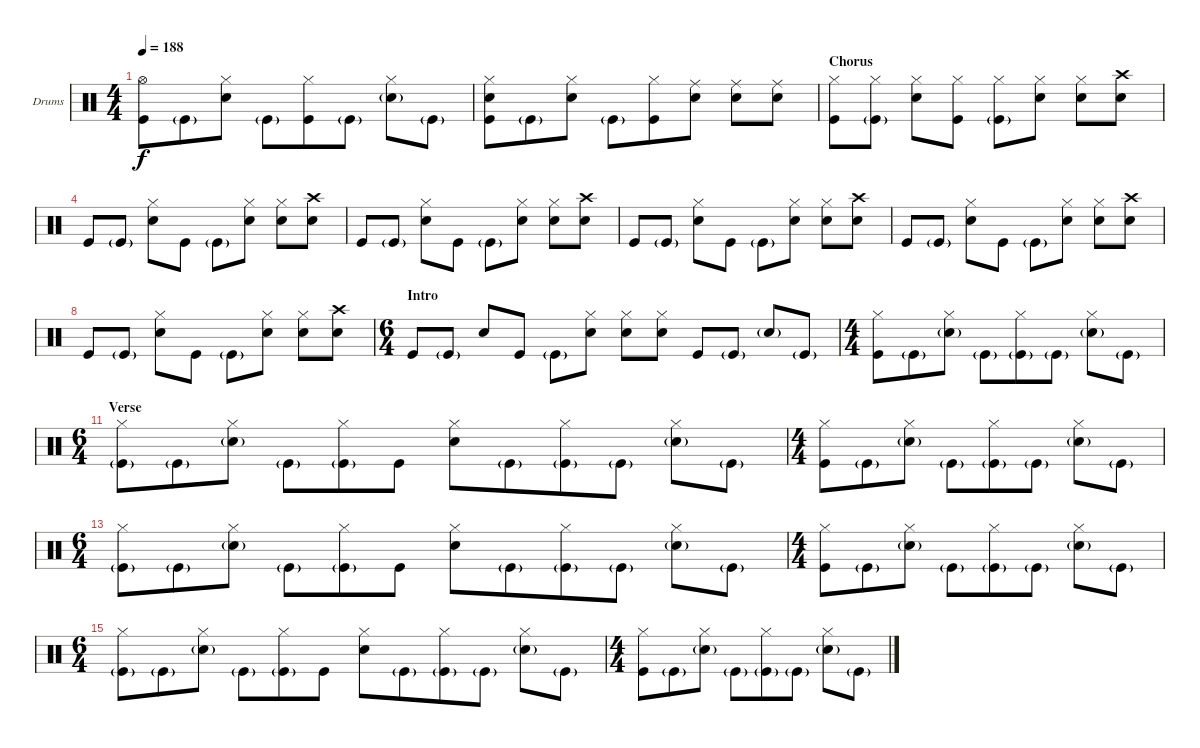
\bracketExtendMode nobrackets
\firstSystemTrackNameOrientation horizontal
\otherSystemsTrackNameOrientation horizontal
\defaultBarNumberDisplay FirstOfSystem
\track ("Drumkit" "Drums") {instrument percussion}
\staff {score}
\articulation defaults
\ts (4 4)
\tempo 188
\clef neutral
\ks c
("Hi-Hat (open)" "Kick (hit)").8{dy f beam merge} "Kick (hit)"{g}.8{beam merge} ("Snare (hit) 2" "Hi-Hat (closed)").8{beam split} "Kick (hit)"{g}.8{beam merge} ("Kick (hit)" "Hi-Hat (closed)").8 "Kick (hit)"{g}.8 ("Snare (hit) 2"{g} "Hi-Hat (closed)").8 "Kick (hit)"{g}.8 |
("Snare (hit) 2" "Kick (hit)" "Hi-Hat (closed)").8{beam merge} "Kick (hit)"{g}.8{beam merge} ("Snare (hit) 2" "Hi-Hat (closed)").8{beam split} "Kick (hit)"{g}.8{beam merge} ("Kick (hit)" "Hi-Hat (closed)").8 ("Snare (hit) 2" "Ride (middle)").8 ("Snare (hit) 2" "Ride (middle)").8 ("Snare (hit) 2" "Ride (middle)").8 |
\section ("" "Chorus")
("Kick (hit)" "Hi-Hat (closed)").8 ("Kick (hit)"{g} "Hi-Hat (closed)").8 ("Hi-Hat (closed)" "Snare (hit) 2").8 ("Kick (hit)" "Hi-Hat (closed)").8 ("Kick (hit)"{g} "Hi-Hat (closed)").8 ("Hi-Hat (closed)" "Snare (hit) 2").8 ("Hi-Hat (closed)" "Snare (hit) 2").8 ("Crash high (hit)" "Snare (hit) 2").8 |
"Kick (hit)".8 "Kick (hit)"{g}.8 ("Hi-Hat (closed)" "Snare (hit) 2").8 "Kick (hit)".8 "Kick (hit)"{g}.8 ("Hi-Hat (closed)" "Snare (hit) 2").8 ("Hi-Hat (closed)" "Snare (hit) 2").8 ("Crash high (hit)" "Snare (hit) 2").8 |
"Kick (hit)".8 "Kick (hit)"{g}.8 ("Hi-Hat (closed)" "Snare (hit) 2").8 "Kick (hit)".8 "Kick (hit)"{g}.8 ("Hi-Hat (closed)" "Snare (hit) 2").8 ("Hi-Hat (closed)" "Snare (hit) 2").8 ("Crash high (hit)" "Snare (hit) 2").8 |
"Kick (hit)".8 "Kick (hit)"{g}.8 ("Hi-Hat (closed)" "Snare (hit) 2").8 "Kick (hit)".8 "Kick (hit)"{g}.8 ("Hi-Hat (closed)" "Snare (hit) 2").8 ("Hi-Hat (closed)" "Snare (hit) 2").8 ("Crash high (hit)" "Snare (hit) 2").8 |
"Kick (hit)".8 "Kick (hit)"{g}.8 ("Hi-Hat (closed)" "Snare (hit) 2").8 "Kick (hit)".8 "Kick (hit)"{g}.8 ("Hi-Hat (closed)" "Snare (hit) 2").8 ("Hi-Hat (closed)" "Snare (hit) 2").8 ("Crash high (hit)" "Snare (hit) 2").8 |
"Kick (hit)".8 "Kick (hit)"{g}.8 ("Hi-Hat (closed)" "Snare (hit) 2").8 "Kick (hit)".8 "Kick (hit)"{g}.8 ("Hi-Hat (closed)" "Snare (hit) 2").8 ("Hi-Hat (closed)" "Snare (hit) 2").8 ("Crash high (hit)" "Snare (hit) 2").8 |
\ts (6 4)
\section ("" "Intro")
"Kick (hit)".8 "Kick (hit)"{g}.8 "Snare (hit) 2".8 "Kick (hit)".8 "Kick (hit)"{g}.8 ("Hi-Hat (closed)" "Snare (hit) 2").8 ("Hi-Hat (closed)" "Snare (hit) 2").8 ("Snare (hit) 2" "Hi-Hat (closed)").8 "Kick (hit)".8 "Kick (hit)"{g}.8 "Snare (hit) 2"{g}.8 "Kick (hit)"{g}.8 |
\ts (4 4)
("Kick (hit)" "Hi-Hat (closed)").8{beam merge} "Kick (hit)"{g}.8{beam merge} ("Snare (hit) 2"{g} "Hi-Hat (closed)").8{beam split} "Kick (hit)"{g}.8{beam merge} ("Kick (hit)"{g} "Hi-Hat (closed)").8 "Kick (hit)"{g}.8 ("Snare (hit) 2"{g} "Hi-Hat (closed)").8 "Kick (hit)"{g}.8 |
\ts (6 4)
\section ("" "Verse")
("Kick (hit)"{g} "Hi-Hat (closed)").8{beam merge} "Kick (hit)"{g}.8{beam merge} ("Snare (hit) 2"{g} "Hi-Hat (closed)").8{beam split} "Kick (hit)"{g}.8{beam merge} ("Kick (hit)"{g} "Hi-Hat (closed)").8 "Kick (hit)".8 ("Snare (hit) 2" "Hi-Hat (closed)").8 "Kick (hit)"{g}.8{beam merge} ("Kick (hit)"{g} "Hi-Hat (closed)").8 "Kick (hit)"{g}.8 ("Snare (hit) 2"{g} "Hi-Hat (closed)").8 "Kick (hit)"{g}.8 |
\ts (4 4)
("Kick (hit)" "Hi-Hat (closed)").8{beam merge} "Kick (hit)"{g}.8{beam merge} ("Snare (hit) 2"{g} "Hi-Hat (closed)").8{beam split} "Kick (hit)"{g}.8{beam merge} ("Kick (hit)"{g} "Hi-Hat (closed)").8 "Kick (hit)"{g}.8 ("Snare (hit) 2"{g} "Hi-Hat (closed)").8 "Kick (hit)"{g}.8 |
\ts (6 4)
("Kick (hit)"{g} "Hi-Hat (closed)").8{beam merge} "Kick (hit)"{g}.8{beam merge} ("Snare (hit) 2"{g} "Hi-Hat (closed)").8{beam split} "Kick (hit)"{g}.8{beam merge} ("Kick (hit)"{g} "Hi-Hat (closed)").8 "Kick (hit)".8 ("Snare (hit) 2" "Hi-Hat (closed)").8 "Kick (hit)"{g}.8{beam merge} ("Kick (hit)"{g} "Hi-Hat (closed)").8 "Kick (hit)"{g}.8 ("Snare (hit) 2"{g} "Hi-Hat (closed)").8 "Kick (hit)"{g}.8 |
\ts (4 4)
("Kick (hit)" "Hi-Hat (closed)").8{beam merge} "Kick (hit)"{g}.8{beam merge} ("Snare (hit) 2"{g} "Hi-Hat (closed)").8{beam split} "Kick (hit)"{g}.8{beam merge} ("Kick (hit)"{g} "Hi-Hat (closed)").8 "Kick (hit)"{g}.8 ("Snare (hit) 2"{g} "Hi-Hat (closed)").8 "Kick (hit)"{g}.8 |
\ts (6 4)
("Kick (hit)"{g} "Hi-Hat (closed)").8{beam merge} "Kick (hit)"{g}.8{beam merge} ("Snare (hit) 2"{g} "Hi-Hat (closed)").8{beam split} "Kick (hit)"{g}.8{beam merge} ("Kick (hit)"{g} "Hi-Hat (closed)").8 "Kick (hit)".8 ("Snare (hit) 2" "Hi-Hat (closed)").8 "Kick (hit)"{g}.8{beam merge} ("Kick (hit)"{g} "Hi-Hat (closed)").8 "Kick (hit)"{g}.8 ("Snare (hit) 2"{g} "Hi-Hat (closed)").8 "Kick (hit)"{g}.8 |
\ts (4 4)
("Kick (hit)" "Hi-Hat (closed)").8{beam merge} "Kick (hit)"{g}.8{beam merge} ("Snare (hit) 2"{g} "Hi-Hat (closed)").8{beam split} "Kick (hit)"{g}.8{beam merge} ("Kick (hit)"{g} "Hi-Hat (closed)").8 "Kick (hit)"{g}.8 ("Snare (hit) 2"{g} "Hi-Hat (closed)").8 "Kick (hit)"{g}.8
